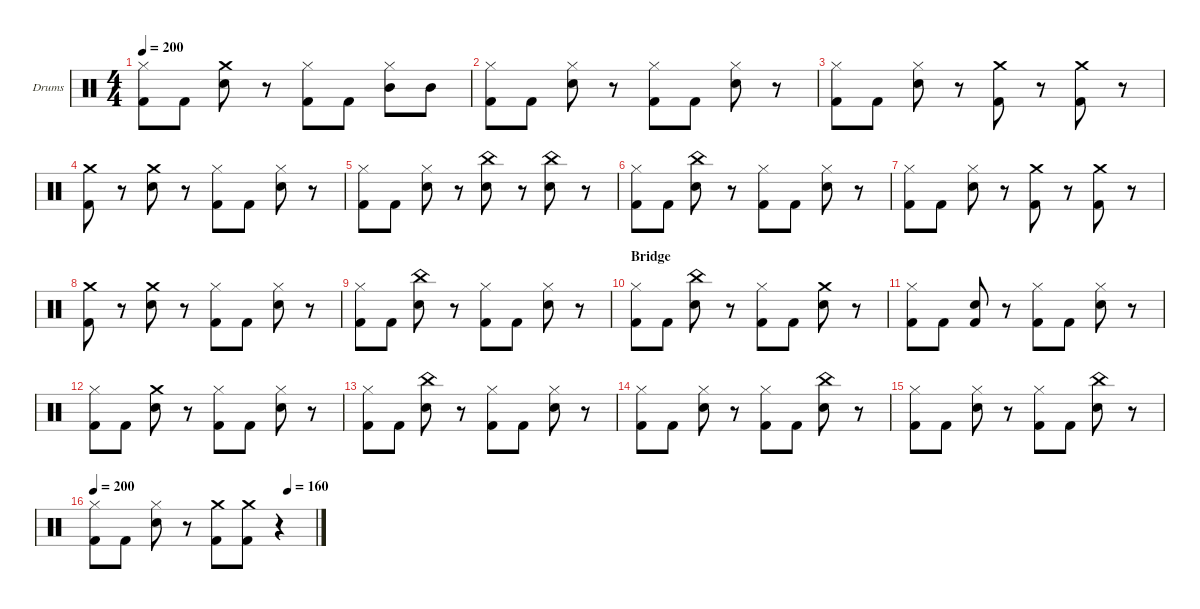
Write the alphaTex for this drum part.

\hideDynamics
\bracketExtendMode nobrackets
\firstSystemTrackNameOrientation horizontal
\otherSystemsTrackNameOrientation horizontal
\track ("Drumkit" "Drums") {instrument percussion}
\staff {score}
\articulation defaults
\ts (4 4)
\tempo 200
\clef neutral
\ks c
("Kick (hit) 2" "Hi-Hat (closed)").8{dy f} "Kick (hit) 2".8 ("Crash medium (hit)" "Snare (hit) 2").8 r.8 ("Hi-Hat (closed)" "Kick (hit) 2").8 "Kick (hit) 2".8 ("Mid Tom (hit)" "Hi-Hat (closed)").8 "Mid Tom (hit)".8 |
("Hi-Hat (closed)" "Kick (hit) 2").8 "Kick (hit) 2".8 ("Snare (hit) 2" "Hi-Hat (closed)").8 r.8 ("Hi-Hat (closed)" "Kick (hit) 2").8 "Kick (hit) 2".8 ("Snare (hit) 2" "Hi-Hat (closed)").8 r.8 |
("Kick (hit) 2" "Hi-Hat (closed)").8 "Kick (hit) 2".8 ("Snare (hit) 2" "Hi-Hat (closed)").8 r.8 ("Crash medium (hit)" "Kick (hit) 2").8 r.8 ("Crash medium (hit)" "Kick (hit) 2").8 r.8 |
("Kick (hit) 2" "Crash medium (hit)").8 r.8 ("Crash medium (hit)" "Snare (hit) 2").8 r.8 ("Hi-Hat (closed)" "Kick (hit) 2").8 "Kick (hit) 2".8 ("Hi-Hat (closed)" "Snare (hit) 2").8 r.8 |
("Hi-Hat (closed)" "Kick (hit) 2").8 "Kick (hit) 2".8 ("Snare (hit) 2" "Hi-Hat (closed)").8 r.8 ("China (hit)" "Snare (hit) 2").8 r.8 ("China (hit)" "Snare (hit) 2").8 r.8 |
("Hi-Hat (closed)" "Kick (hit) 2").8 "Kick (hit) 2".8 ("Snare (hit) 2" "China (hit)").8 r.8 ("Hi-Hat (closed)" "Kick (hit) 2").8 "Kick (hit) 2".8 ("Snare (hit) 2" "Hi-Hat (closed)").8 r.8 |
("Kick (hit) 2" "Hi-Hat (closed)").8 "Kick (hit) 2".8 ("Snare (hit) 2" "Hi-Hat (closed)").8 r.8 ("Crash medium (hit)" "Kick (hit) 2").8 r.8 ("Crash medium (hit)" "Kick (hit) 2").8 r.8 |
("Kick (hit) 2" "Crash medium (hit)").8 r.8 ("Crash medium (hit)" "Snare (hit) 2").8 r.8 ("Hi-Hat (closed)" "Kick (hit) 2").8 "Kick (hit) 2".8 ("Hi-Hat (closed)" "Snare (hit) 2").8 r.8 |
("Hi-Hat (closed)" "Kick (hit) 2").8 "Kick (hit) 2".8 ("Snare (hit) 2" "China (hit)").8 r.8 ("Hi-Hat (closed)" "Kick (hit) 2").8 "Kick (hit) 2".8 ("Snare (hit) 2" "Hi-Hat (closed)").8 r.8 |
\section ("" "Bridge")
("Hi-Hat (closed)" "Kick (hit) 2").8 "Kick (hit) 2".8 ("Snare (hit) 2" "China (hit)").8 r.8 ("Hi-Hat (closed)" "Kick (hit) 2").8 "Kick (hit) 2".8 ("Snare (hit) 2" "Crash medium (hit)").8 r.8 |
("Hi-Hat (closed)" "Kick (hit) 2").8 "Kick (hit) 2".8 ("Snare (hit) 2" "Kick (hit) 2").8 r.8 ("Hi-Hat (closed)" "Kick (hit) 2").8 "Kick (hit) 2".8 ("Snare (hit) 2" "Hi-Hat (closed)").8 r.8 |
("Hi-Hat (closed)" "Kick (hit) 2").8 "Kick (hit) 2".8 ("Snare (hit) 2" "Crash medium (hit)").8 r.8 ("Hi-Hat (closed)" "Kick (hit) 2").8 "Kick (hit) 2".8 ("Snare (hit) 2" "Hi-Hat (closed)").8 r.8 |
("Hi-Hat (closed)" "Kick (hit) 2").8 "Kick (hit) 2".8 ("Snare (hit) 2" "China (hit)").8 r.8 ("Hi-Hat (closed)" "Kick (hit) 2").8 "Kick (hit) 2".8 ("Snare (hit) 2" "Hi-Hat (closed)").8 r.8 |
("Hi-Hat (closed)" "Kick (hit) 2").8 "Kick (hit) 2".8 ("Snare (hit) 2" "Hi-Hat (closed)").8 r.8 ("Hi-Hat (closed)" "Kick (hit) 2").8 "Kick (hit) 2".8 ("Snare (hit) 2" "China (hit)").8 r.8 |
("Hi-Hat (closed)" "Kick (hit) 2").8 "Kick (hit) 2".8 ("Snare (hit) 2" "Hi-Hat (closed)").8 r.8 ("Hi-Hat (closed)" "Kick (hit) 2").8 "Kick (hit) 2".8 ("Snare (hit) 2" "China (hit)").8 r.8 |
\tempo 200
\tempo (160 0.875)
("Hi-Hat (closed)" "Kick (hit) 2").8 "Kick (hit) 2".8 ("Snare (hit) 2" "Hi-Hat (closed)").8 r.8 ("Crash medium (hit)" "Kick (hit) 2").8 ("Crash medium (hit)" "Kick (hit) 2").8 r.4
